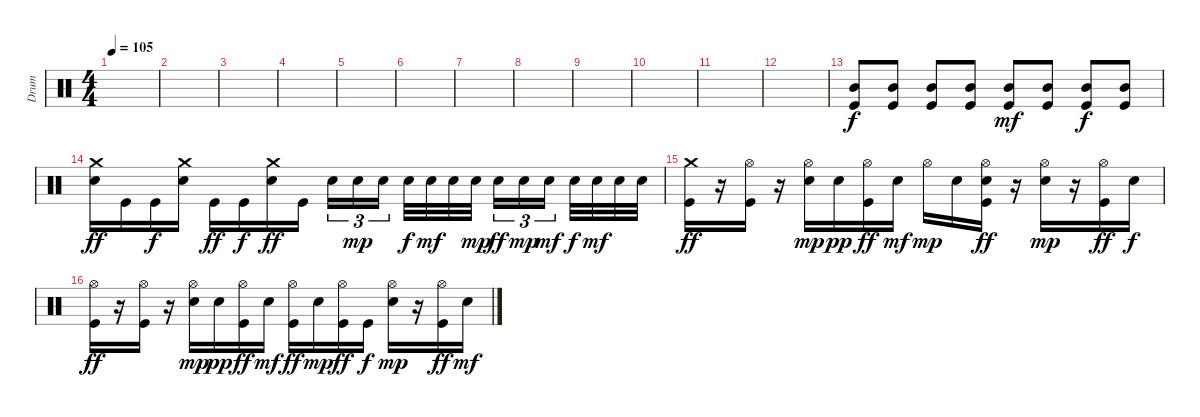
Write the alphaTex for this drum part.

\track ("Drum" "Drum") {instrument percussion}
\staff {score}
\articulation defaults
\ts (4 4)
\tempo 105
\clef neutral
\ks c
|
|
|
|
|
|
|
|
|
|
|
|
("Mid Tom (hit)" "Kick (hit)").8 ("Mid Tom (hit)" "Kick (hit)").8 ("Mid Tom (hit)" "Kick (hit)").8 ("Mid Tom (hit)" "Kick (hit)").8 ("Mid Tom (hit)" "Kick (hit)").8{dy mf} ("Mid Tom (hit)" "Kick (hit)").8 ("Mid Tom (hit)" "Kick (hit)").8{dy f} ("Mid Tom (hit)" "Kick (hit)").8 |
("Crash medium (hit)" "Electric Snare (hit)").16{dy ff} "Kick (hit)".16 "Kick (hit)".16{dy f} ("Crash medium (hit)" "Electric Snare (hit)").16 "Kick (hit)".16{dy ff} "Kick (hit)".16{dy f} ("Crash medium (hit)" "Electric Snare (hit)").16{dy ff} "Kick (hit)".16 "Electric Snare (hit)".16{tu (3 2)} "Electric Snare (hit)".16{tu (3 2) dy mp} "Electric Snare (hit)".16{tu (3 2)} "Electric Snare (hit)".32{dy f} "Electric Snare (hit)".32{dy mf} "Electric Snare (hit)".32 "Electric Snare (hit)".32{dy mp} "Electric Snare (hit)".16{tu (3 2) dy ff} "Electric Snare (hit)".16{tu (3 2) dy mp} "Electric Snare (hit)".16{tu (3 2) dy mf} "Electric Snare (hit)".32{dy f} "Electric Snare (hit)".32{dy mf} "Electric Snare (hit)".32 "Electric Snare (hit)".32 |
("Crash medium (hit)" "Kick (hit)").16{dy ff} r.16 ("Hi-Hat (open)" "Kick (hit)").16 r.16 ("Hi-Hat (open)" "Electric Snare (hit)").16{dy mp} "Electric Snare (hit)".16{dy pp} ("Hi-Hat (open)" "Kick (hit)").16{dy ff} "Electric Snare (hit)".16{dy mf} "Hi-Hat (open)".16{dy mp} "Electric Snare (hit)".16 ("Hi-Hat (open)" "Electric Snare (hit)" "Kick (hit)").16{dy ff} r.16 ("Hi-Hat (open)" "Electric Snare (hit)").16{dy mp} r.16 ("Hi-Hat (open)" "Kick (hit)").16{dy ff} "Electric Snare (hit)".16{dy f} |
("Hi-Hat (open)" "Kick (hit)").16{dy ff} r.16 ("Hi-Hat (open)" "Kick (hit)").16 r.16 ("Hi-Hat (open)" "Electric Snare (hit)").16{dy mp} "Electric Snare (hit)".16{dy pp} ("Hi-Hat (open)" "Kick (hit)").16{dy ff} "Electric Snare (hit)".16{dy mf} ("Hi-Hat (open)" "Kick (hit)").16{dy ff} "Electric Snare (hit)".16{dy mp} ("Hi-Hat (open)" "Kick (hit)").16{dy ff} "Kick (hit)".16{dy f} ("Hi-Hat (open)" "Electric Snare (hit)").16{dy mp} r.16 ("Hi-Hat (open)" "Kick (hit)").16{dy ff} "Electric Snare (hit)".16{dy mf}
